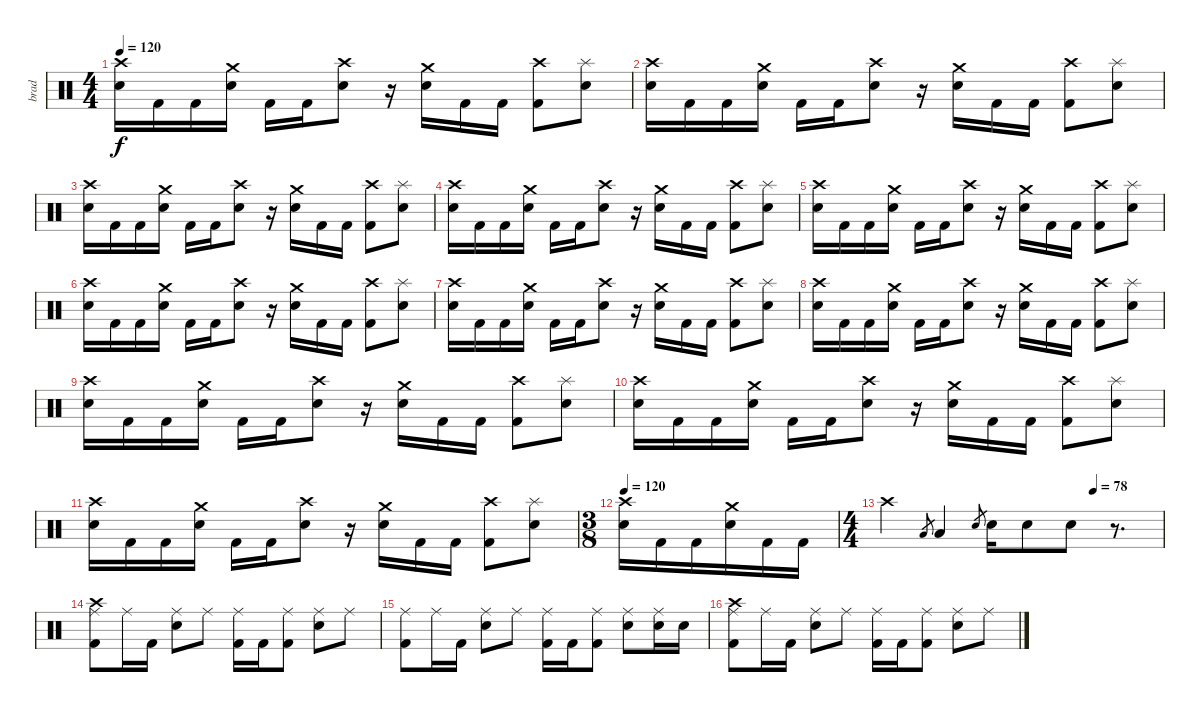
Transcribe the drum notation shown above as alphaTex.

\track ("brad" "brad") {instrument percussion}
\staff {score}
\articulation defaults
\ts (4 4)
\tempo 120
\clef neutral
\ks c
("Crash high (hit)" "Electric Snare (hit)").16{dy f} "Kick (hit) 2".16 "Kick (hit) 2".16 ("Crash medium (hit)" "Electric Snare (hit)").16 "Kick (hit) 2".16 "Kick (hit) 2".16 ("Crash high (hit)" "Electric Snare (hit)").8 r.16 ("Crash medium (hit)" "Electric Snare (hit)").16 "Kick (hit) 2".16 "Kick (hit) 2".16 ("Crash high (hit)" "Kick (hit) 2").8 ("Splash (hit)" "Electric Snare (hit)").8 |
("Crash high (hit)" "Electric Snare (hit)").16 "Kick (hit) 2".16 "Kick (hit) 2".16 ("Crash medium (hit)" "Electric Snare (hit)").16 "Kick (hit) 2".16 "Kick (hit) 2".16 ("Crash high (hit)" "Electric Snare (hit)").8 r.16 ("Crash medium (hit)" "Electric Snare (hit)").16 "Kick (hit) 2".16 "Kick (hit) 2".16 ("Crash high (hit)" "Kick (hit) 2").8 ("Splash (hit)" "Electric Snare (hit)").8 |
("Crash high (hit)" "Electric Snare (hit)").16 "Kick (hit) 2".16 "Kick (hit) 2".16 ("Crash medium (hit)" "Electric Snare (hit)").16 "Kick (hit) 2".16 "Kick (hit) 2".16 ("Crash high (hit)" "Electric Snare (hit)").8 r.16 ("Crash medium (hit)" "Electric Snare (hit)").16 "Kick (hit) 2".16 "Kick (hit) 2".16 ("Crash high (hit)" "Kick (hit) 2").8 ("Splash (hit)" "Electric Snare (hit)").8 |
("Crash high (hit)" "Electric Snare (hit)").16 "Kick (hit) 2".16 "Kick (hit) 2".16 ("Crash medium (hit)" "Electric Snare (hit)").16 "Kick (hit) 2".16 "Kick (hit) 2".16 ("Crash high (hit)" "Electric Snare (hit)").8 r.16 ("Crash medium (hit)" "Electric Snare (hit)").16 "Kick (hit) 2".16 "Kick (hit) 2".16 ("Crash high (hit)" "Kick (hit) 2").8 ("Splash (hit)" "Electric Snare (hit)").8 |
("Crash high (hit)" "Electric Snare (hit)").16 "Kick (hit) 2".16 "Kick (hit) 2".16 ("Crash medium (hit)" "Electric Snare (hit)").16 "Kick (hit) 2".16 "Kick (hit) 2".16 ("Crash high (hit)" "Electric Snare (hit)").8 r.16 ("Crash medium (hit)" "Electric Snare (hit)").16 "Kick (hit) 2".16 "Kick (hit) 2".16 ("Crash high (hit)" "Kick (hit) 2").8 ("Splash (hit)" "Electric Snare (hit)").8 |
("Crash high (hit)" "Electric Snare (hit)").16 "Kick (hit) 2".16 "Kick (hit) 2".16 ("Crash medium (hit)" "Electric Snare (hit)").16 "Kick (hit) 2".16 "Kick (hit) 2".16 ("Crash high (hit)" "Electric Snare (hit)").8 r.16 ("Crash medium (hit)" "Electric Snare (hit)").16 "Kick (hit) 2".16 "Kick (hit) 2".16 ("Crash high (hit)" "Kick (hit) 2").8 ("Splash (hit)" "Electric Snare (hit)").8 |
("Crash high (hit)" "Electric Snare (hit)").16 "Kick (hit) 2".16 "Kick (hit) 2".16 ("Crash medium (hit)" "Electric Snare (hit)").16 "Kick (hit) 2".16 "Kick (hit) 2".16 ("Crash high (hit)" "Electric Snare (hit)").8 r.16 ("Crash medium (hit)" "Electric Snare (hit)").16 "Kick (hit) 2".16 "Kick (hit) 2".16 ("Crash high (hit)" "Kick (hit) 2").8 ("Splash (hit)" "Electric Snare (hit)").8 |
("Crash high (hit)" "Electric Snare (hit)").16 "Kick (hit) 2".16 "Kick (hit) 2".16 ("Crash medium (hit)" "Electric Snare (hit)").16 "Kick (hit) 2".16 "Kick (hit) 2".16 ("Crash high (hit)" "Electric Snare (hit)").8 r.16 ("Crash medium (hit)" "Electric Snare (hit)").16 "Kick (hit) 2".16 "Kick (hit) 2".16 ("Crash high (hit)" "Kick (hit) 2").8 ("Splash (hit)" "Electric Snare (hit)").8 |
("Crash high (hit)" "Electric Snare (hit)").16 "Kick (hit) 2".16 "Kick (hit) 2".16 ("Crash medium (hit)" "Electric Snare (hit)").16 "Kick (hit) 2".16 "Kick (hit) 2".16 ("Crash high (hit)" "Electric Snare (hit)").8 r.16 ("Crash medium (hit)" "Electric Snare (hit)").16 "Kick (hit) 2".16 "Kick (hit) 2".16 ("Crash high (hit)" "Kick (hit) 2").8 ("Splash (hit)" "Electric Snare (hit)").8 |
("Crash high (hit)" "Electric Snare (hit)").16 "Kick (hit) 2".16 "Kick (hit) 2".16 ("Crash medium (hit)" "Electric Snare (hit)").16 "Kick (hit) 2".16 "Kick (hit) 2".16 ("Crash high (hit)" "Electric Snare (hit)").8 r.16 ("Crash medium (hit)" "Electric Snare (hit)").16 "Kick (hit) 2".16 "Kick (hit) 2".16 ("Crash high (hit)" "Kick (hit) 2").8 ("Splash (hit)" "Electric Snare (hit)").8 |
("Crash high (hit)" "Electric Snare (hit)").16 "Kick (hit) 2".16 "Kick (hit) 2".16 ("Crash medium (hit)" "Electric Snare (hit)").16 "Kick (hit) 2".16 "Kick (hit) 2".16 ("Crash high (hit)" "Electric Snare (hit)").8 r.16 ("Crash medium (hit)" "Electric Snare (hit)").16 "Kick (hit) 2".16 "Kick (hit) 2".16 ("Crash high (hit)" "Kick (hit) 2").8 ("Splash (hit)" "Electric Snare (hit)").8 |
\ts (3 8)
\tempo 120
("Crash high (hit)" "Electric Snare (hit)").16 "Kick (hit) 2".16 "Kick (hit) 2".16 ("Crash medium (hit)" "Electric Snare (hit)").16 "Kick (hit) 2".16 "Kick (hit) 2".16 |
\ts (4 4)
\tempo (78 0.75)
"Crash high (hit)".4 "Low Floor Tom (hit)".8{gr} "Low Floor Tom (hit)".4 "Electric Snare (hit)".8{gr} "Electric Snare (hit)".16 "Electric Snare (hit)".8 "Electric Snare (hit)".8 r.8{d} |
("Crash high (hit)" "Ride (middle)" "Kick (hit) 2").8 "Ride (middle)".16 "Kick (hit) 2".16 ("Ride (middle)" "Electric Snare (hit)").8 "Ride (middle)".8 ("Ride (middle)" "Kick (hit) 2").16 "Kick (hit) 2".16 ("Ride (middle)" "Kick (hit) 2").8 ("Ride (middle)" "Electric Snare (hit)").8 "Ride (middle)".8 |
("Ride (middle)" "Kick (hit) 2").8 "Ride (middle)".16 "Kick (hit) 2".16 ("Ride (middle)" "Electric Snare (hit)").8 "Ride (middle)".8 ("Ride (middle)" "Kick (hit) 2").16 "Kick (hit) 2".16 ("Ride (middle)" "Kick (hit) 2").8 ("Ride (middle)" "Electric Snare (hit)").8 ("Ride (middle)" "Electric Snare (hit)").16 "Electric Snare (hit)".16 |
("Crash high (hit)" "Ride (middle)" "Kick (hit) 2").8 "Ride (middle)".16 "Kick (hit) 2".16 ("Ride (middle)" "Electric Snare (hit)").8 "Ride (middle)".8 ("Ride (middle)" "Kick (hit) 2").16 "Kick (hit) 2".16 ("Ride (middle)" "Kick (hit) 2").8 ("Ride (middle)" "Electric Snare (hit)").8 "Ride (middle)".8
